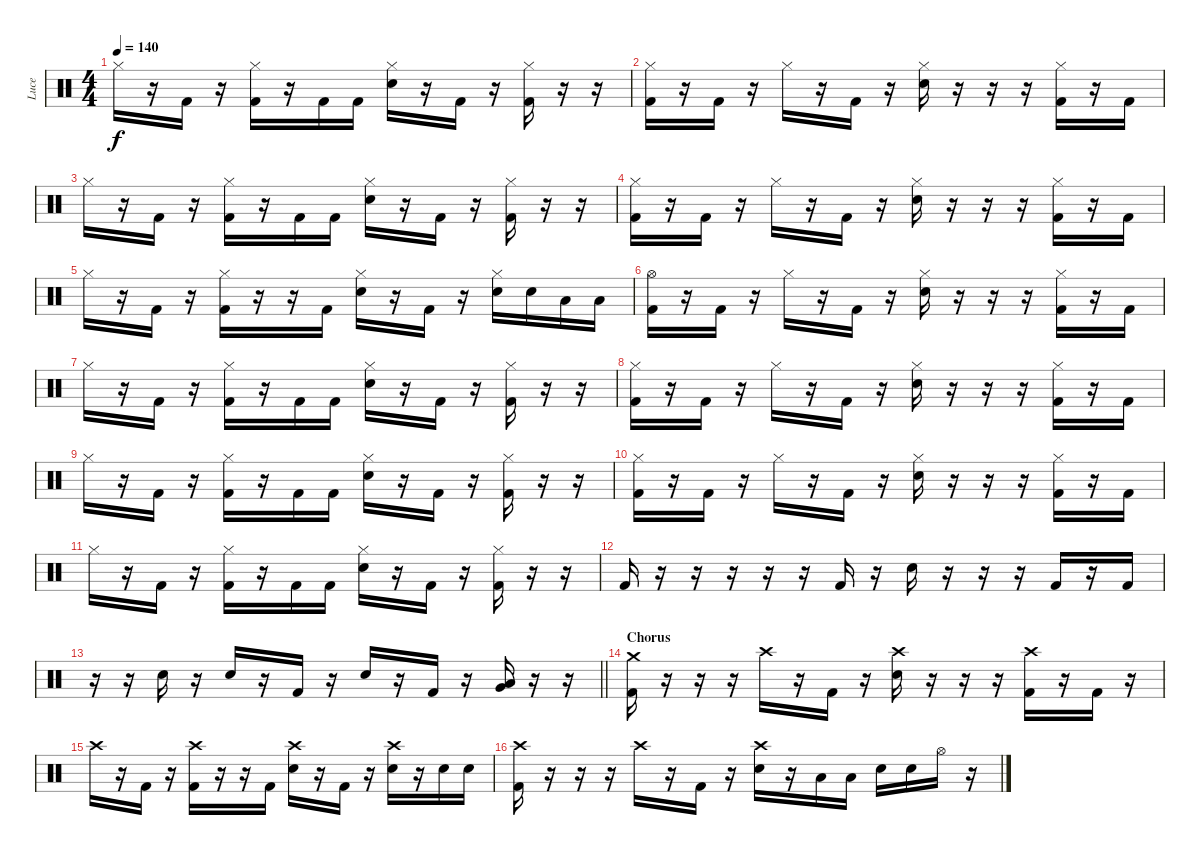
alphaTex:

\track ("Luce" "Luce") {instrument percussion}
\staff {score}
\articulation defaults
\ts (4 4)
\tempo 140
\clef neutral
\ks c "Hi-Hat (closed)".16{dy f}
r.16 "Kick (hit) 2".16 r.16 ("Hi-Hat (closed)" "Kick (hit) 2").16 r.16 "Kick (hit) 2".16 "Kick (hit) 2".16 ("Hi-Hat (closed)" "Electric Snare (hit)").16 r.16 "Kick (hit) 2".16 r.16 ("Hi-Hat (closed)" "Kick (hit) 2").16 r.16 r.16 |
("Hi-Hat (closed)" "Kick (hit) 2").16 r.16 "Kick (hit) 2".16 r.16 "Hi-Hat (closed)".16 r.16 "Kick (hit) 2".16 r.16 ("Hi-Hat (closed)" "Electric Snare (hit)").16 r.16 r.16 r.16 ("Hi-Hat (closed)" "Kick (hit) 2").16 r.16 "Kick (hit) 2".16 |
"Hi-Hat (closed)".16 r.16 "Kick (hit) 2".16 r.16 ("Hi-Hat (closed)" "Kick (hit) 2").16 r.16 "Kick (hit) 2".16 "Kick (hit) 2".16 ("Hi-Hat (closed)" "Electric Snare (hit)").16 r.16 "Kick (hit) 2".16 r.16 ("Hi-Hat (closed)" "Kick (hit) 2").16 r.16 r.16 |
("Hi-Hat (closed)" "Kick (hit) 2").16 r.16 "Kick (hit) 2".16 r.16 "Hi-Hat (closed)".16 r.16 "Kick (hit) 2".16 r.16 ("Hi-Hat (closed)" "Electric Snare (hit)").16 r.16 r.16 r.16 ("Hi-Hat (closed)" "Kick (hit) 2").16 r.16 "Kick (hit) 2".16 |
"Hi-Hat (closed)".16 r.16 "Kick (hit) 2".16 r.16 ("Hi-Hat (closed)" "Kick (hit) 2").16 r.16 r.16 "Kick (hit) 2".16 ("Hi-Hat (closed)" "Electric Snare (hit)").16 r.16 "Kick (hit) 2".16 r.16 ("Hi-Hat (closed)" "Electric Snare (hit)").16 "Electric Snare (hit)".16 "Low Tom (hit)".16 "Low Tom (hit)".16 |
("Hi-Hat (open)" "Kick (hit) 2").16 r.16 "Kick (hit) 2".16 r.16 "Hi-Hat (closed)".16 r.16 "Kick (hit) 2".16 r.16 ("Hi-Hat (closed)" "Electric Snare (hit)").16 r.16 r.16 r.16 ("Hi-Hat (closed)" "Kick (hit) 2").16 r.16 "Kick (hit) 2".16 |
"Hi-Hat (closed)".16 r.16 "Kick (hit) 2".16 r.16 ("Hi-Hat (closed)" "Kick (hit) 2").16 r.16 "Kick (hit) 2".16 "Kick (hit) 2".16 ("Hi-Hat (closed)" "Electric Snare (hit)").16 r.16 "Kick (hit) 2".16 r.16 ("Hi-Hat (closed)" "Kick (hit) 2").16 r.16 r.16 |
("Hi-Hat (closed)" "Kick (hit) 2").16 r.16 "Kick (hit) 2".16 r.16 "Hi-Hat (closed)".16 r.16 "Kick (hit) 2".16 r.16 ("Hi-Hat (closed)" "Electric Snare (hit)").16 r.16 r.16 r.16 ("Hi-Hat (closed)" "Kick (hit) 2").16 r.16 "Kick (hit) 2".16 |
"Hi-Hat (closed)".16 r.16 "Kick (hit) 2".16 r.16 ("Hi-Hat (closed)" "Kick (hit) 2").16 r.16 "Kick (hit) 2".16 "Kick (hit) 2".16 ("Hi-Hat (closed)" "Electric Snare (hit)").16 r.16 "Kick (hit) 2".16 r.16 ("Hi-Hat (closed)" "Kick (hit) 2").16 r.16 r.16 |
("Hi-Hat (closed)" "Kick (hit) 2").16 r.16 "Kick (hit) 2".16 r.16 "Hi-Hat (closed)".16 r.16 "Kick (hit) 2".16 r.16 ("Hi-Hat (closed)" "Electric Snare (hit)").16 r.16 r.16 r.16 ("Hi-Hat (closed)" "Kick (hit) 2").16 r.16 "Kick (hit) 2".16 |
"Hi-Hat (closed)".16 r.16 "Kick (hit) 2".16 r.16 ("Hi-Hat (closed)" "Kick (hit) 2").16 r.16 "Kick (hit) 2".16 "Kick (hit) 2".16 ("Hi-Hat (closed)" "Electric Snare (hit)").16 r.16 "Kick (hit) 2".16 r.16 ("Hi-Hat (closed)" "Kick (hit) 2").16 r.16 r.16 |
"Kick (hit) 2".16 r.16 r.16 r.16 r.16 r.16 "Kick (hit) 2".16 r.16 "Hand Clap (hit)".16 r.16 r.16 r.16 "Kick (hit) 2".16 r.16 "Kick (hit) 2".16 |
\barLineRight lightlight
r.16 r.16 "Hand Clap (hit)".16 r.16 "Hand Clap (hit)".16 r.16 "Kick (hit) 2".16 r.16 "Hand Clap (hit)".16 r.16 "Kick (hit) 2".16 r.16 ("Low Tom (hit)" "Very Low Tom (hit)").16 r.16 r.16 |
\section ("" "Chorus")
("Crash medium (hit)" "Kick (hit) 2").16 r.16 r.16 r.16 "Crash high (hit)".16 r.16 "Kick (hit) 2".16 r.16 ("Crash high (hit)" "Electric Snare (hit)").16 r.16 r.16 r.16 ("Crash high (hit)" "Kick (hit) 2").16 r.16 "Kick (hit) 2".16 r.16 |
"Crash high (hit)".16 r.16 "Kick (hit) 2".16 r.16 ("Crash high (hit)" "Kick (hit) 2").16 r.16 r.16 "Kick (hit) 2".16 ("Crash high (hit)" "Electric Snare (hit)").16 r.16 "Kick (hit) 2".16 r.16 ("Crash high (hit)" "Electric Snare (hit)").16 r.16 "Electric Snare (hit)".16 "Electric Snare (hit)".16 |
("Crash high (hit)" "Kick (hit) 2").16 r.16 r.16 r.16 "Crash high (hit)".16 r.16 "Kick (hit) 2".16 r.16 ("Crash high (hit)" "Electric Snare (hit)").16 r.16 "Low Tom (hit)".16 "Low Tom (hit)".16 "Electric Snare (hit)".16 "Electric Snare (hit)".16 "Hi-Hat (open)".16 r.16
